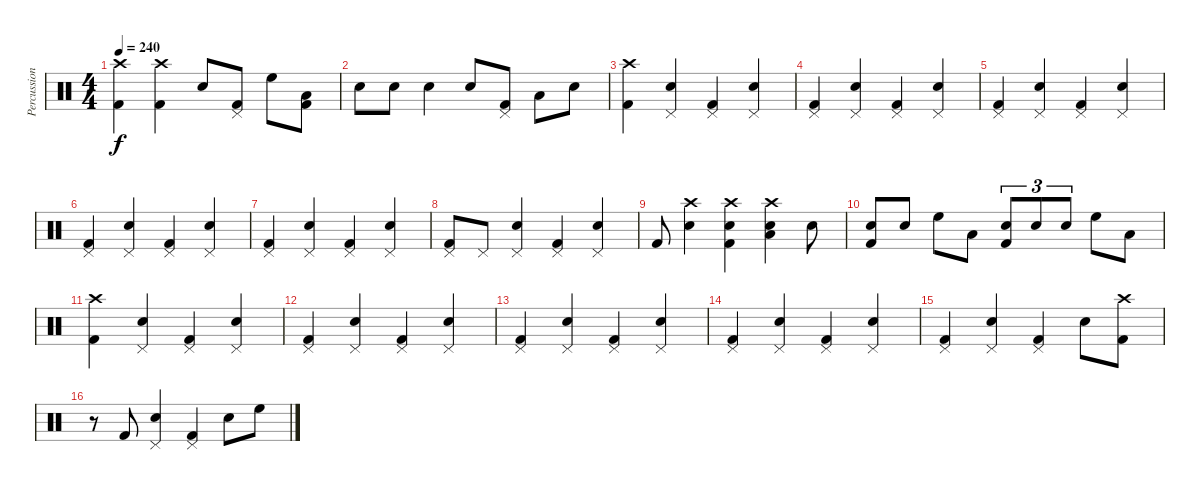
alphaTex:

\track ("Percussion" "Percussion") {instrument percussion}
\staff {score}
\articulation defaults
\ts (4 4)
\tempo 240
\clef neutral
\ks c
("Crash high (hit)" "Kick (hit) 2").4{dy f} ("Crash high (hit)" "Kick (hit) 2").4 "Electric Snare (hit)".8 ("Pedal Hi-Hat (hit)" "Kick (hit) 2").8 "High Floor Tom (hit)".8 ("Low Tom (hit)" "Kick (hit) 2").8 |
"Electric Snare (hit)".8 "Electric Snare (hit)".8 "Electric Snare (hit)".4 "Electric Snare (hit)".8 ("Pedal Hi-Hat (hit)" "Kick (hit) 2").8 "Low Tom (hit)".8 "Electric Snare (hit)".8 |
("Crash high (hit)" "Kick (hit) 2").4 ("Pedal Hi-Hat (hit)" "Electric Snare (hit)").4 ("Pedal Hi-Hat (hit)" "Kick (hit) 2").4 ("Pedal Hi-Hat (hit)" "Electric Snare (hit)").4 |
("Pedal Hi-Hat (hit)" "Kick (hit) 2").4 ("Pedal Hi-Hat (hit)" "Electric Snare (hit)").4 ("Pedal Hi-Hat (hit)" "Kick (hit) 2").4 ("Pedal Hi-Hat (hit)" "Electric Snare (hit)").4 |
("Pedal Hi-Hat (hit)" "Kick (hit) 2").4 ("Pedal Hi-Hat (hit)" "Electric Snare (hit)").4 ("Pedal Hi-Hat (hit)" "Kick (hit) 2").4 ("Pedal Hi-Hat (hit)" "Electric Snare (hit)").4 |
("Pedal Hi-Hat (hit)" "Kick (hit) 2").4 ("Pedal Hi-Hat (hit)" "Electric Snare (hit)").4 ("Pedal Hi-Hat (hit)" "Kick (hit) 2").4 ("Pedal Hi-Hat (hit)" "Electric Snare (hit)").4 |
("Pedal Hi-Hat (hit)" "Kick (hit) 2").4 ("Pedal Hi-Hat (hit)" "Electric Snare (hit)").4 ("Pedal Hi-Hat (hit)" "Kick (hit) 2").4 ("Pedal Hi-Hat (hit)" "Electric Snare (hit)").4 |
("Pedal Hi-Hat (hit)" "Kick (hit) 2").8 "Pedal Hi-Hat (hit)".8 ("Pedal Hi-Hat (hit)" "Electric Snare (hit)").4 ("Pedal Hi-Hat (hit)" "Kick (hit) 2").4 ("Pedal Hi-Hat (hit)" "Electric Snare (hit)").4 |
"Kick (hit) 2".8 ("Crash high (hit)" "Electric Snare (hit)").4 ("Crash high (hit)" "Electric Snare (hit)" "Kick (hit) 2").4 ("Crash high (hit)" "Low Tom (hit)" "Electric Snare (hit)").4 "Electric Snare (hit)".8 |
("Electric Snare (hit)" "Kick (hit) 2").8 "Electric Snare (hit)".8 "High Floor Tom (hit)".8 "Low Tom (hit)".8 ("Electric Snare (hit)" "Kick (hit) 2").8{tu (3 2)} "Electric Snare (hit)".8{tu (3 2)} "Electric Snare (hit)".8{tu (3 2)} "High Floor Tom (hit)".8 "Low Tom (hit)".8 |
("Crash high (hit)" "Kick (hit) 2").4 ("Pedal Hi-Hat (hit)" "Electric Snare (hit)").4 ("Pedal Hi-Hat (hit)" "Kick (hit) 2").4 ("Pedal Hi-Hat (hit)" "Electric Snare (hit)").4 |
("Pedal Hi-Hat (hit)" "Kick (hit) 2").4 ("Pedal Hi-Hat (hit)" "Electric Snare (hit)").4 ("Pedal Hi-Hat (hit)" "Kick (hit) 2").4 ("Pedal Hi-Hat (hit)" "Electric Snare (hit)").4 |
("Pedal Hi-Hat (hit)" "Kick (hit) 2").4 ("Pedal Hi-Hat (hit)" "Electric Snare (hit)").4 ("Pedal Hi-Hat (hit)" "Kick (hit) 2").4 ("Pedal Hi-Hat (hit)" "Electric Snare (hit)").4 |
("Pedal Hi-Hat (hit)" "Kick (hit) 2").4 ("Pedal Hi-Hat (hit)" "Electric Snare (hit)").4 ("Pedal Hi-Hat (hit)" "Kick (hit) 2").4 ("Pedal Hi-Hat (hit)" "Electric Snare (hit)").4 |
("Pedal Hi-Hat (hit)" "Kick (hit) 2").4 ("Pedal Hi-Hat (hit)" "Electric Snare (hit)").4 ("Pedal Hi-Hat (hit)" "Kick (hit) 2").4 "Electric Snare (hit)".8 ("Crash high (hit)" "Kick (hit) 2").8 |
r.8 "Kick (hit) 2".8 ("Pedal Hi-Hat (hit)" "Electric Snare (hit)").4 ("Pedal Hi-Hat (hit)" "Kick (hit) 2").4 "Electric Snare (hit)".8 "High Floor Tom (hit)".8
